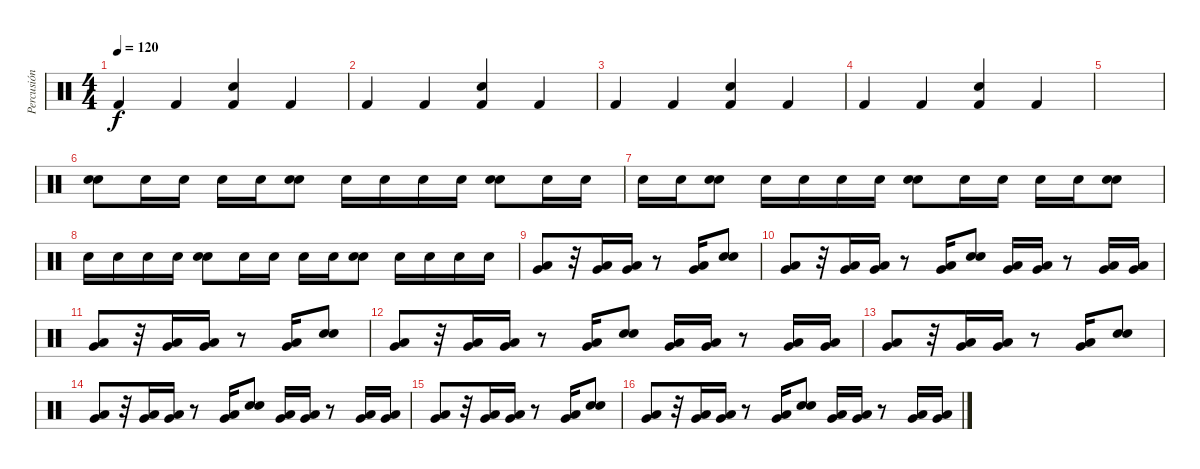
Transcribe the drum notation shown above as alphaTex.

\track ("Percusión" "Percusión") {instrument percussion}
\staff {score}
\articulation defaults
\ts (4 4)
\tempo 120
\clef neutral
\ks c "Kick (hit) 2".4{dy f} "Kick (hit) 2".4
("Kick (hit) 2" "Snare (hit) 2").4 "Kick (hit) 2".4 |
"Kick (hit) 2".4 "Kick (hit) 2".4 ("Kick (hit) 2" "Snare (hit) 2").4 "Kick (hit) 2".4 |
"Kick (hit) 2".4 "Kick (hit) 2".4 ("Kick (hit) 2" "Snare (hit) 2").4 "Kick (hit) 2".4 |
"Kick (hit) 2".4 "Kick (hit) 2".4 ("Kick (hit) 2" "Snare (hit) 2").4 "Kick (hit) 2".4 |
|
("Snare (hit) 2" "Electric Snare (hit)").8 "Snare (hit) 2".16 "Snare (hit) 2".16 "Snare (hit) 2".16 "Snare (hit) 2".16 ("Snare (hit) 2" "Electric Snare (hit)").8 "Snare (hit) 2".16 "Snare (hit) 2".16 "Snare (hit) 2".16 "Snare (hit) 2".16 ("Snare (hit) 2" "Electric Snare (hit)").8 "Snare (hit) 2".16 "Snare (hit) 2".16 |
"Snare (hit) 2".16 "Snare (hit) 2".16 ("Snare (hit) 2" "Electric Snare (hit)").8 "Snare (hit) 2".16 "Snare (hit) 2".16 "Snare (hit) 2".16 "Snare (hit) 2".16 ("Snare (hit) 2" "Electric Snare (hit)").8 "Snare (hit) 2".16 "Snare (hit) 2".16 "Snare (hit) 2".16 "Snare (hit) 2".16 ("Snare (hit) 2" "Electric Snare (hit)").8 |
"Snare (hit) 2".16 "Snare (hit) 2".16 "Snare (hit) 2".16 "Snare (hit) 2".16 ("Snare (hit) 2" "Electric Snare (hit)").8 "Snare (hit) 2".16 "Snare (hit) 2".16 "Snare (hit) 2".16 "Snare (hit) 2".16 ("Electric Snare (hit)" "Snare (hit) 2").8 "Snare (hit) 2".16 "Snare (hit) 2".16 "Snare (hit) 2".16 "Snare (hit) 2".16 |
("Low Floor Tom (hit)" "Very Low Tom (hit)").8 r.32 ("Low Floor Tom (hit)" "Very Low Tom (hit)").16 ("Low Floor Tom (hit)" "Very Low Tom (hit)").16 r.8 ("Low Floor Tom (hit)" "Very Low Tom (hit)").16 ("Electric Snare (hit)" "Snare (hit) 2").8 |
("Low Floor Tom (hit)" "Very Low Tom (hit)").8 r.32 ("Low Floor Tom (hit)" "Very Low Tom (hit)").16 ("Low Floor Tom (hit)" "Very Low Tom (hit)").16 r.8 ("Low Floor Tom (hit)" "Very Low Tom (hit)").16 ("Electric Snare (hit)" "Snare (hit) 2").8 ("Low Floor Tom (hit)" "Very Low Tom (hit)").16 ("Low Floor Tom (hit)" "Very Low Tom (hit)").16 r.8 ("Low Floor Tom (hit)" "Very Low Tom (hit)").16 ("Low Floor Tom (hit)" "Very Low Tom (hit)").16 |
("Low Floor Tom (hit)" "Very Low Tom (hit)").8 r.32 ("Low Floor Tom (hit)" "Very Low Tom (hit)").16 ("Low Floor Tom (hit)" "Very Low Tom (hit)").16 r.8 ("Low Floor Tom (hit)" "Very Low Tom (hit)").16 ("Electric Snare (hit)" "Snare (hit) 2").8 |
("Low Floor Tom (hit)" "Very Low Tom (hit)").8 r.32 ("Low Floor Tom (hit)" "Very Low Tom (hit)").16 ("Low Floor Tom (hit)" "Very Low Tom (hit)").16 r.8 ("Low Floor Tom (hit)" "Very Low Tom (hit)").16 ("Electric Snare (hit)" "Snare (hit) 2").8 ("Low Floor Tom (hit)" "Very Low Tom (hit)").16 ("Low Floor Tom (hit)" "Very Low Tom (hit)").16 r.8 ("Low Floor Tom (hit)" "Very Low Tom (hit)").16 ("Low Floor Tom (hit)" "Very Low Tom (hit)").16 |
("Low Floor Tom (hit)" "Very Low Tom (hit)").8 r.32 ("Low Floor Tom (hit)" "Very Low Tom (hit)").16 ("Low Floor Tom (hit)" "Very Low Tom (hit)").16 r.8 ("Low Floor Tom (hit)" "Very Low Tom (hit)").16 ("Electric Snare (hit)" "Snare (hit) 2").8 |
("Low Floor Tom (hit)" "Very Low Tom (hit)").8 r.32 ("Low Floor Tom (hit)" "Very Low Tom (hit)").16 ("Low Floor Tom (hit)" "Very Low Tom (hit)").16 r.8 ("Low Floor Tom (hit)" "Very Low Tom (hit)").16 ("Electric Snare (hit)" "Snare (hit) 2").8 ("Low Floor Tom (hit)" "Very Low Tom (hit)").16 ("Low Floor Tom (hit)" "Very Low Tom (hit)").16 r.8 ("Low Floor Tom (hit)" "Very Low Tom (hit)").16 ("Low Floor Tom (hit)" "Very Low Tom (hit)").16 |
("Low Floor Tom (hit)" "Very Low Tom (hit)").8 r.32 ("Low Floor Tom (hit)" "Very Low Tom (hit)").16 ("Low Floor Tom (hit)" "Very Low Tom (hit)").16 r.8 ("Low Floor Tom (hit)" "Very Low Tom (hit)").16 ("Electric Snare (hit)" "Snare (hit) 2").8 |
("Low Floor Tom (hit)" "Very Low Tom (hit)").8 r.32 ("Low Floor Tom (hit)" "Very Low Tom (hit)").16 ("Low Floor Tom (hit)" "Very Low Tom (hit)").16 r.8 ("Low Floor Tom (hit)" "Very Low Tom (hit)").16 ("Electric Snare (hit)" "Snare (hit) 2").8 ("Low Floor Tom (hit)" "Very Low Tom (hit)").16 ("Low Floor Tom (hit)" "Very Low Tom (hit)").16 r.8 ("Low Floor Tom (hit)" "Very Low Tom (hit)").16 ("Low Floor Tom (hit)" "Very Low Tom (hit)").16
